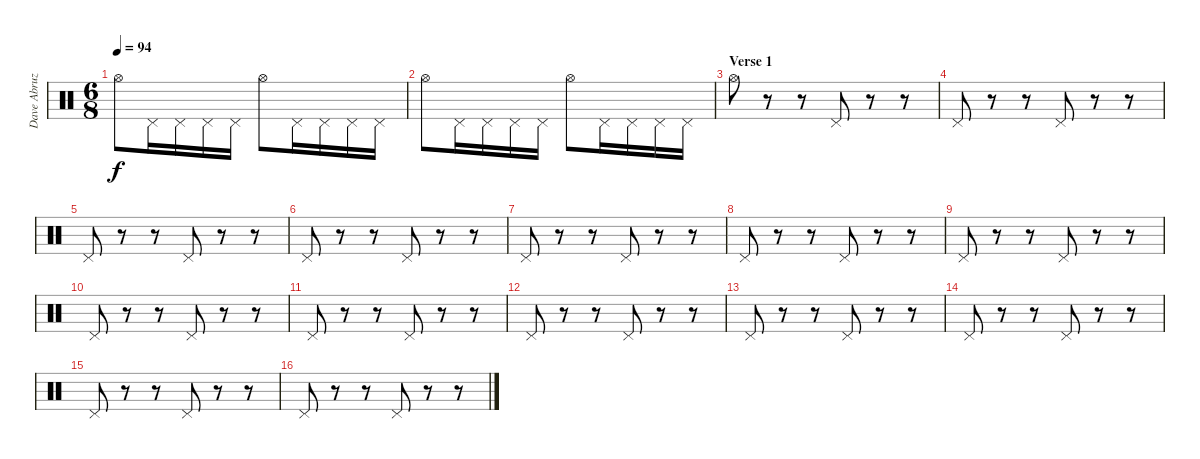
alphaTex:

\track ("Dave Abruzzese" "Dave Abruz") {instrument percussion}
\staff {score}
\articulation defaults
\ts (6 8)
\tempo 94
\clef neutral
\ks c "Hi-Hat (open)".8{dy f} "Pedal Hi-Hat (hit)".16 "Pedal Hi-Hat (hit)".16 "Pedal Hi-Hat (hit)".16 "Pedal Hi-Hat (hit)".16 "Hi-Hat (open)".8 "Pedal Hi-Hat (hit)".16 "Pedal Hi-Hat (hit)".16 "Pedal Hi-Hat (hit)".16 "Pedal Hi-Hat (hit)".16
|
"Hi-Hat (open)".8 "Pedal Hi-Hat (hit)".16 "Pedal Hi-Hat (hit)".16 "Pedal Hi-Hat (hit)".16 "Pedal Hi-Hat (hit)".16 "Hi-Hat (open)".8 "Pedal Hi-Hat (hit)".16 "Pedal Hi-Hat (hit)".16 "Pedal Hi-Hat (hit)".16 "Pedal Hi-Hat (hit)".16 |
\section ("" "Verse 1")
"Hi-Hat (open)".8 r.8 r.8 "Pedal Hi-Hat (hit)".8 r.8 r.8 |
"Pedal Hi-Hat (hit)".8 r.8 r.8 "Pedal Hi-Hat (hit)".8 r.8 r.8 |
"Pedal Hi-Hat (hit)".8 r.8 r.8 "Pedal Hi-Hat (hit)".8 r.8 r.8 |
"Pedal Hi-Hat (hit)".8 r.8 r.8 "Pedal Hi-Hat (hit)".8 r.8 r.8 |
"Pedal Hi-Hat (hit)".8 r.8 r.8 "Pedal Hi-Hat (hit)".8 r.8 r.8 |
"Pedal Hi-Hat (hit)".8 r.8 r.8 "Pedal Hi-Hat (hit)".8 r.8 r.8 |
"Pedal Hi-Hat (hit)".8 r.8 r.8 "Pedal Hi-Hat (hit)".8 r.8 r.8 |
"Pedal Hi-Hat (hit)".8 r.8 r.8 "Pedal Hi-Hat (hit)".8 r.8 r.8 |
"Pedal Hi-Hat (hit)".8 r.8 r.8 "Pedal Hi-Hat (hit)".8 r.8 r.8 |
"Pedal Hi-Hat (hit)".8 r.8 r.8 "Pedal Hi-Hat (hit)".8 r.8 r.8 |
"Pedal Hi-Hat (hit)".8 r.8 r.8 "Pedal Hi-Hat (hit)".8 r.8 r.8 |
"Pedal Hi-Hat (hit)".8 r.8 r.8 "Pedal Hi-Hat (hit)".8 r.8 r.8 |
"Pedal Hi-Hat (hit)".8 r.8 r.8 "Pedal Hi-Hat (hit)".8 r.8 r.8 |
"Pedal Hi-Hat (hit)".8 r.8 r.8 "Pedal Hi-Hat (hit)".8 r.8 r.8
